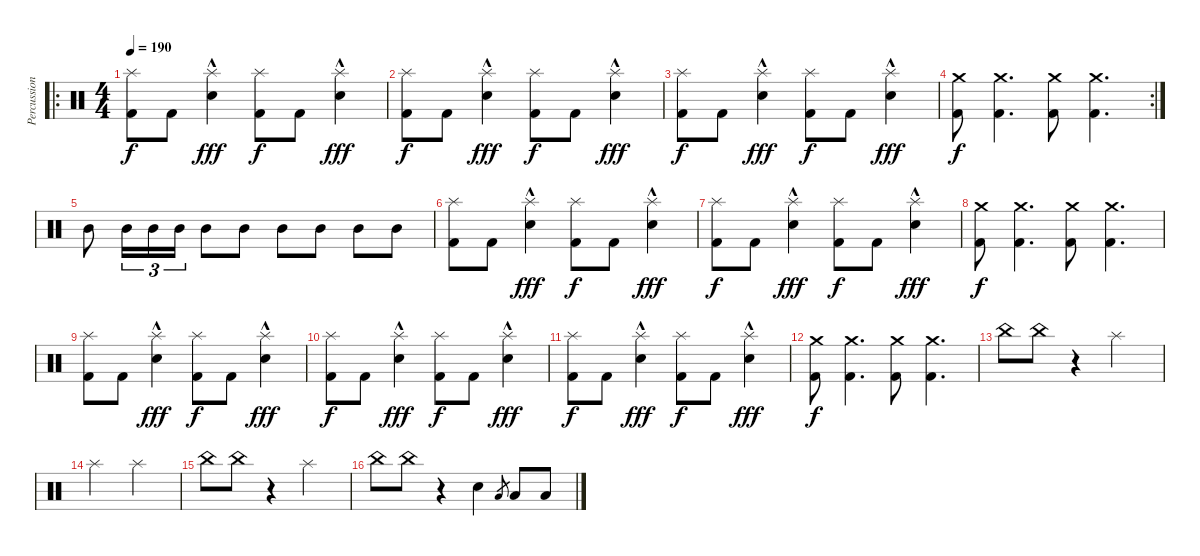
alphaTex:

\track ("Percussion" "Percussion") {instrument percussion}
\staff {score}
\articulation defaults
\ro
\ts (4 4)
\tempo 190
\clef neutral
\ks c
("Splash (hit)" "Kick (hit) 2").8{dy f} "Kick (hit) 2".8 ("Splash (hit)" "Snare (hit) 2"{hac}).4{dy fff} ("Splash (hit)" "Kick (hit) 2").8{dy f} "Kick (hit) 2".8 ("Splash (hit)" "Snare (hit) 2"{hac}).4{dy fff} |
("Splash (hit)" "Kick (hit) 2").8{dy f} "Kick (hit) 2".8 ("Splash (hit)" "Snare (hit) 2"{hac}).4{dy fff} ("Splash (hit)" "Kick (hit) 2").8{dy f} "Kick (hit) 2".8 ("Splash (hit)" "Snare (hit) 2"{hac}).4{dy fff} |
("Splash (hit)" "Kick (hit) 2").8{dy f} "Kick (hit) 2".8 ("Splash (hit)" "Snare (hit) 2"{hac}).4{dy fff} ("Splash (hit)" "Kick (hit) 2").8{dy f} "Kick (hit) 2".8 ("Splash (hit)" "Snare (hit) 2"{hac}).4{dy fff} |
\rc 2
("Crash medium (hit)" "Kick (hit) 2").8{dy f} ("Crash medium (hit)" "Kick (hit) 2").4{d} ("Crash medium (hit)" "Kick (hit) 2").8 ("Crash medium (hit)" "Kick (hit) 2").4{d} |
"Mid Tom (hit)".8 "Mid Tom (hit)".16{tu (3 2)} "Mid Tom (hit)".16{tu (3 2)} "Mid Tom (hit)".16{tu (3 2)} "Mid Tom (hit)".8 "Mid Tom (hit)".8 "Mid Tom (hit)".8 "Mid Tom (hit)".8 "Mid Tom (hit)".8 "Mid Tom (hit)".8 |
("Splash (hit)" "Kick (hit) 2").8 "Kick (hit) 2".8 ("Splash (hit)" "Snare (hit) 2"{hac}).4{dy fff} ("Splash (hit)" "Kick (hit) 2").8{dy f} "Kick (hit) 2".8 ("Splash (hit)" "Snare (hit) 2"{hac}).4{dy fff} |
("Splash (hit)" "Kick (hit) 2").8{dy f} "Kick (hit) 2".8 ("Splash (hit)" "Snare (hit) 2"{hac}).4{dy fff} ("Splash (hit)" "Kick (hit) 2").8{dy f} "Kick (hit) 2".8 ("Splash (hit)" "Snare (hit) 2"{hac}).4{dy fff} |
("Crash medium (hit)" "Kick (hit) 2").8{dy f} ("Crash medium (hit)" "Kick (hit) 2").4{d} ("Crash medium (hit)" "Kick (hit) 2").8 ("Crash medium (hit)" "Kick (hit) 2").4{d} |
("Splash (hit)" "Kick (hit) 2").8 "Kick (hit) 2".8 ("Splash (hit)" "Snare (hit) 2"{hac}).4{dy fff} ("Splash (hit)" "Kick (hit) 2").8{dy f} "Kick (hit) 2".8 ("Splash (hit)" "Snare (hit) 2"{hac}).4{dy fff} |
("Splash (hit)" "Kick (hit) 2").8{dy f} "Kick (hit) 2".8 ("Splash (hit)" "Snare (hit) 2"{hac}).4{dy fff} ("Splash (hit)" "Kick (hit) 2").8{dy f} "Kick (hit) 2".8 ("Splash (hit)" "Snare (hit) 2"{hac}).4{dy fff} |
("Splash (hit)" "Kick (hit) 2").8{dy f} "Kick (hit) 2".8 ("Splash (hit)" "Snare (hit) 2"{hac}).4{dy fff} ("Splash (hit)" "Kick (hit) 2").8{dy f} "Kick (hit) 2".8 ("Splash (hit)" "Snare (hit) 2"{hac}).4{dy fff} |
("Crash medium (hit)" "Kick (hit) 2").8{dy f} ("Crash medium (hit)" "Kick (hit) 2").4{d} ("Crash medium (hit)" "Kick (hit) 2").8 ("Crash medium (hit)" "Kick (hit) 2").4{d} |
"China (hit)".8 "China (hit)".8 r.4 "Splash (hit)".2 |
"Splash (hit)".2 "Splash (hit)".2 |
"China (hit)".8 "China (hit)".8 r.4 "Splash (hit)".2 |
"China (hit)".8 "China (hit)".8 r.4 "Snare (hit) 2".4 "Low Floor Tom (hit)".8{gr} "Low Floor Tom (hit)".8 "Low Floor Tom (hit)".8
